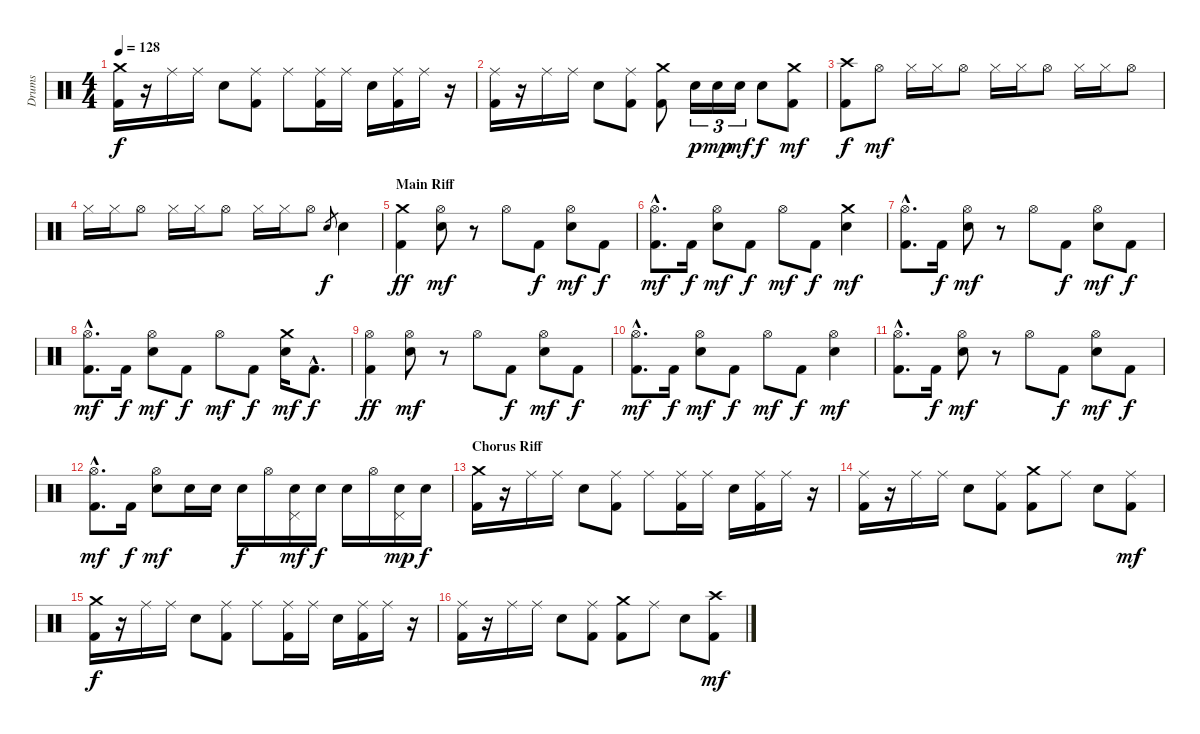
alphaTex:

\track ("Drums" "Drums") {instrument percussion}
\staff {score}
\articulation defaults
\ts (4 4)
\tempo 128
\clef neutral
\ks c
("Crash medium (hit)" "Kick (hit) 2").16{dy f} r.16 "Ride (middle)".16 "Ride (middle)".16 "Electric Snare (hit)".8 ("Ride (middle)" "Kick (hit) 2").8 "Ride (middle)".8 ("Ride (middle)" "Kick (hit) 2").16 "Ride (middle)".16 "Electric Snare (hit)".16 ("Ride (middle)" "Kick (hit) 2").16 "Ride (middle)".16 r.16 |
("Ride (middle)" "Kick (hit) 2").16 r.16 "Ride (middle)".16 "Ride (middle)".16 "Electric Snare (hit)".8 ("Ride (middle)" "Kick (hit) 2").8 ("Crash medium (hit)" "Kick (hit) 2").8 "Electric Snare (hit)".16{tu (3 2) dy p} "Electric Snare (hit)".16{tu (3 2) dy mp} "Electric Snare (hit)".16{tu (3 2) dy mf} "Electric Snare (hit)".8{dy f} ("Crash medium (hit)" "Kick (hit) 2").8{dy mf} |
("Crash high (hit)" "Kick (hit) 2").8{dy f} "Hi-Hat (open)".8{dy mf} "Hi-Hat (closed)".16 "Hi-Hat (closed)".16 "Hi-Hat (open)".8 "Hi-Hat (closed)".16 "Hi-Hat (closed)".16 "Hi-Hat (open)".8 "Hi-Hat (closed)".16 "Hi-Hat (closed)".16 "Hi-Hat (open)".8 |
"Hi-Hat (closed)".16 "Hi-Hat (closed)".16 "Hi-Hat (open)".8 "Hi-Hat (closed)".16 "Hi-Hat (closed)".16 "Hi-Hat (open)".8 "Hi-Hat (closed)".16 "Hi-Hat (closed)".16 "Hi-Hat (open)".8 "Electric Snare (hit)".8{gr dy f} "Electric Snare (hit)".4 |
\section ("" "Main Riff")
("Crash medium (hit)" "Kick (hit) 2").4{dy ff} ("Hi-Hat (open)" "Electric Snare (hit)").8{dy mf} r.8 "Hi-Hat (open)".8 "Kick (hit) 2".8{dy f} ("Hi-Hat (open)" "Electric Snare (hit)").8{dy mf} "Kick (hit) 2".8{dy f} |
("Hi-Hat (open)"{hac} "Kick (hit) 2"{hac}).8{d dy mf} "Kick (hit) 2".16{dy f} ("Hi-Hat (open)" "Electric Snare (hit)").8{dy mf} "Kick (hit) 2".8{dy f} "Hi-Hat (open)".8{dy mf} "Kick (hit) 2".8{dy f} ("Crash medium (hit)" "Electric Snare (hit)").4{dy mf} |
("Hi-Hat (open)"{hac} "Kick (hit) 2"{hac}).8{d} "Kick (hit) 2".16{dy f} ("Hi-Hat (open)" "Electric Snare (hit)").8{dy mf} r.8 "Hi-Hat (open)".8 "Kick (hit) 2".8{dy f} ("Hi-Hat (open)" "Electric Snare (hit)").8{dy mf} "Kick (hit) 2".8{dy f} |
("Hi-Hat (open)"{hac} "Kick (hit) 2"{hac}).8{d dy mf} "Kick (hit) 2".16{dy f} ("Hi-Hat (open)" "Electric Snare (hit)").8{dy mf} "Kick (hit) 2".8{dy f} "Hi-Hat (open)".8{dy mf} "Kick (hit) 2".8{dy f} ("Crash medium (hit)" "Electric Snare (hit)").16{dy mf} "Kick (hit) 2"{hac}.8{d dy f} |
("Hi-Hat (open)" "Kick (hit) 2").4{dy ff} ("Hi-Hat (open)" "Electric Snare (hit)").8{dy mf} r.8 "Hi-Hat (open)".8 "Kick (hit) 2".8{dy f} ("Hi-Hat (open)" "Electric Snare (hit)").8{dy mf} "Kick (hit) 2".8{dy f} |
("Hi-Hat (open)"{hac} "Kick (hit) 2"{hac}).8{d dy mf} "Kick (hit) 2".16{dy f} ("Hi-Hat (open)" "Electric Snare (hit)").8{dy mf} "Kick (hit) 2".8{dy f} "Hi-Hat (open)".8{dy mf} "Kick (hit) 2".8{dy f} ("Hi-Hat (open)" "Electric Snare (hit)").4{dy mf} |
("Hi-Hat (open)"{hac} "Kick (hit) 2"{hac}).8{d} "Kick (hit) 2".16{dy f} ("Hi-Hat (open)" "Electric Snare (hit)").8{dy mf} r.8 "Hi-Hat (open)".8 "Kick (hit) 2".8{dy f} ("Hi-Hat (open)" "Electric Snare (hit)").8{dy mf} "Kick (hit) 2".8{dy f} |
("Hi-Hat (open)"{hac} "Kick (hit) 2"{hac}).8{d dy mf} "Kick (hit) 2".16{dy f} ("Hi-Hat (open)" "Electric Snare (hit)").8{dy mf} "Electric Snare (hit)".16 "Electric Snare (hit)".16 "Electric Snare (hit)".16{dy f} "Hi-Hat (open)".16 ("Pedal Hi-Hat (hit)" "Electric Snare (hit)").16{dy mf} "Electric Snare (hit)".16{dy f} "Electric Snare (hit)".16 "Hi-Hat (open)".16 ("Pedal Hi-Hat (hit)" "Electric Snare (hit)").16{dy mp} "Electric Snare (hit)".16{dy f} |
\section ("" "Chorus Riff")
("Crash medium (hit)" "Kick (hit) 2").16 r.16 "Ride (middle)".16 "Ride (middle)".16 "Electric Snare (hit)".8 ("Ride (middle)" "Kick (hit) 2").8 "Ride (middle)".8 ("Ride (middle)" "Kick (hit) 2").16 "Ride (middle)".16 "Electric Snare (hit)".16 ("Ride (middle)" "Kick (hit) 2").16 "Ride (middle)".16 r.16 |
("Ride (middle)" "Kick (hit) 2").16 r.16 "Ride (middle)".16 "Ride (middle)".16 "Electric Snare (hit)".8 ("Ride (middle)" "Kick (hit) 2").8 ("Crash medium (hit)" "Kick (hit) 2").8 "Ride (middle)".8 "Electric Snare (hit)".8 ("Ride (middle)" "Kick (hit) 2").8{dy mf} |
("Crash medium (hit)" "Kick (hit) 2").16{dy f} r.16 "Ride (middle)".16 "Ride (middle)".16 "Electric Snare (hit)".8 ("Ride (middle)" "Kick (hit) 2").8 "Ride (middle)".8 ("Ride (middle)" "Kick (hit) 2").16 "Ride (middle)".16 "Electric Snare (hit)".16 ("Ride (middle)" "Kick (hit) 2").16 "Ride (middle)".16 r.16 |
("Ride (middle)" "Kick (hit) 2").16 r.16 "Ride (middle)".16 "Ride (middle)".16 "Electric Snare (hit)".8 ("Ride (middle)" "Kick (hit) 2").8 ("Crash medium (hit)" "Kick (hit) 2").8 "Ride (middle)".8 "Electric Snare (hit)".8 ("Crash high (hit)" "Kick (hit) 2").8{dy mf}
